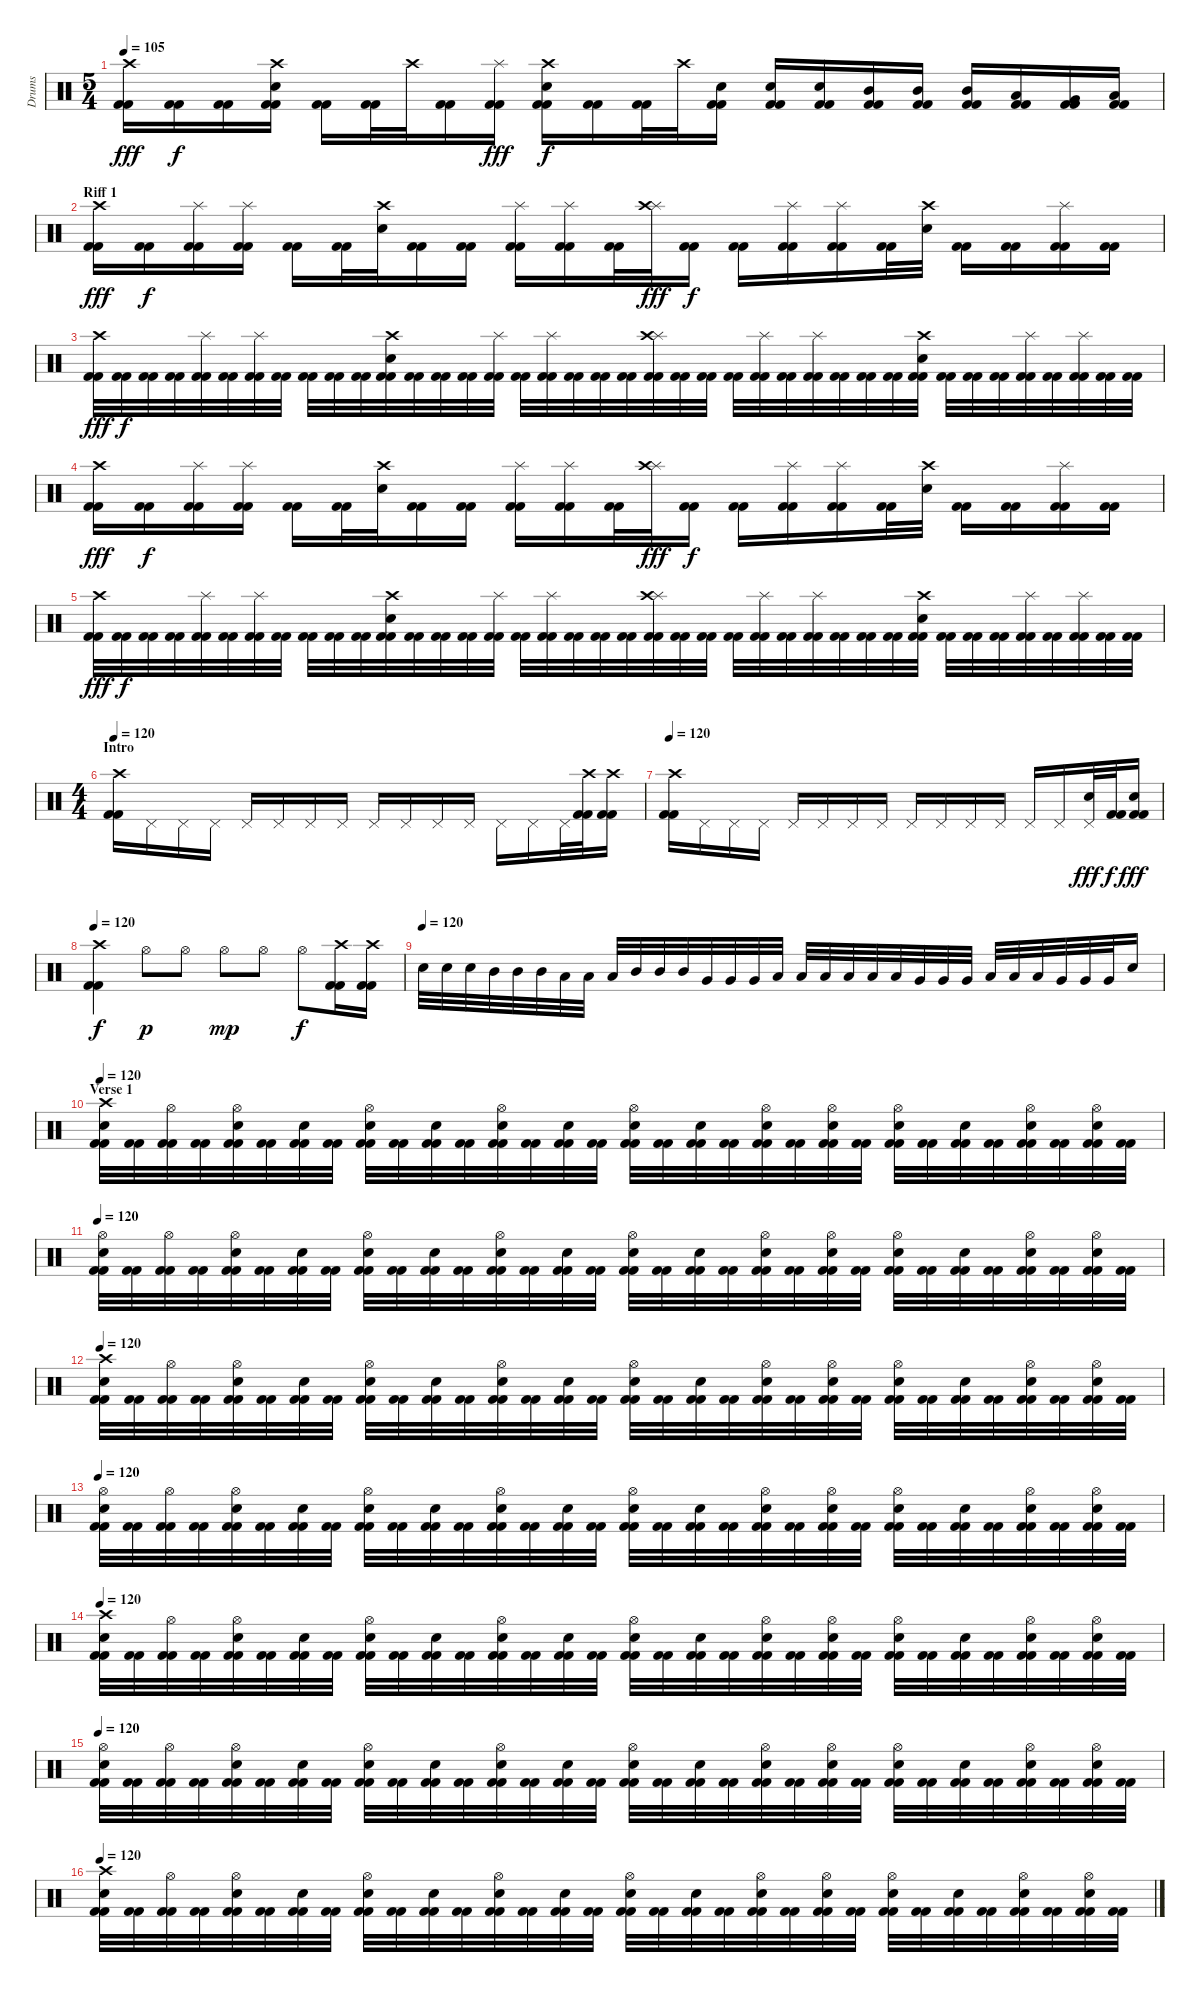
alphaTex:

\track ("Drums" "Drums") {instrument percussion}
\staff {score}
\articulation defaults
\ts (5 4)
\tempo 105
\clef neutral
\ks c
("Crash high (hit)" "Kick (hit) 2" "Kick (hit) 2").16{dy fff} ("Kick (hit) 2" "Kick (hit) 2").16{dy f} ("Kick (hit) 2" "Kick (hit) 2").16 ("Crash high (hit)" "Electric Snare (hit)" "Kick (hit) 2" "Kick (hit) 2").16 ("Kick (hit) 2" "Kick (hit) 2").16 ("Kick (hit) 2" "Kick (hit) 2").32 "Crash high (hit)".32 ("Kick (hit) 2" "Kick (hit) 2").16 ("Splash (hit)" "Kick (hit) 2" "Kick (hit) 2").16{dy fff} ("Crash high (hit)" "Electric Snare (hit)" "Kick (hit) 2" "Kick (hit) 2").16{dy f} ("Kick (hit) 2" "Kick (hit) 2").16 ("Kick (hit) 2" "Kick (hit) 2").32 "Crash high (hit)".32 ("Electric Snare (hit)" "Kick (hit) 2" "Kick (hit) 2").16 ("Electric Snare (hit)" "Kick (hit) 2" "Kick (hit) 2").16 ("Electric Snare (hit)" "Kick (hit) 2" "Kick (hit) 2").16 ("Mid Tom (hit)" "Kick (hit) 2" "Kick (hit) 2").16 ("Mid Tom (hit)" "Kick (hit) 2" "Kick (hit) 2").16 ("Mid Tom (hit)" "Kick (hit) 2" "Kick (hit) 2").16 ("Low Tom (hit)" "Kick (hit) 2" "Kick (hit) 2").16 ("Very Low Tom (hit)" "Kick (hit) 2" "Kick (hit) 2").16 ("Low Floor Tom (hit)" "Kick (hit) 2" "Kick (hit) 2").16 |
\section ("" "Riff 1")
("Crash high (hit)" "Kick (hit) 2" "Kick (hit) 2").16{dy fff} ("Kick (hit) 2" "Kick (hit) 2").16{dy f} ("Splash (hit)" "Kick (hit) 2" "Kick (hit) 2").16 ("Splash (hit)" "Kick (hit) 2" "Kick (hit) 2").16 ("Kick (hit) 2" "Kick (hit) 2").16 ("Kick (hit) 2" "Kick (hit) 2").32 ("Crash high (hit)" "Electric Snare (hit)").32 ("Kick (hit) 2" "Kick (hit) 2").16 ("Kick (hit) 2" "Kick (hit) 2").16 ("Splash (hit)" "Kick (hit) 2" "Kick (hit) 2").16 ("Splash (hit)" "Kick (hit) 2" "Kick (hit) 2").16 ("Kick (hit) 2" "Kick (hit) 2").32 ("Splash (hit)" "Crash high (hit)").32{dy fff} ("Kick (hit) 2" "Kick (hit) 2").16{dy f} ("Kick (hit) 2" "Kick (hit) 2").16 ("Splash (hit)" "Kick (hit) 2" "Kick (hit) 2").16 ("Splash (hit)" "Kick (hit) 2" "Kick (hit) 2").16 ("Kick (hit) 2" "Kick (hit) 2").32 ("Crash high (hit)" "Electric Snare (hit)").32 ("Kick (hit) 2" "Kick (hit) 2").16 ("Kick (hit) 2" "Kick (hit) 2").16 ("Splash (hit)" "Kick (hit) 2" "Kick (hit) 2").16 ("Kick (hit) 2" "Kick (hit) 2").16 |
("Crash high (hit)" "Kick (hit) 2" "Kick (hit) 2").32{dy fff} ("Kick (hit) 2" "Kick (hit) 2").32{dy f} ("Kick (hit) 2" "Kick (hit) 2").32 ("Kick (hit) 2" "Kick (hit) 2").32 ("Splash (hit)" "Kick (hit) 2" "Kick (hit) 2").32 ("Kick (hit) 2" "Kick (hit) 2").32 ("Splash (hit)" "Kick (hit) 2" "Kick (hit) 2").32 ("Kick (hit) 2" "Kick (hit) 2").32 ("Kick (hit) 2" "Kick (hit) 2").32 ("Kick (hit) 2" "Kick (hit) 2").32 ("Kick (hit) 2" "Kick (hit) 2").32 ("Crash high (hit)" "Electric Snare (hit)" "Kick (hit) 2" "Kick (hit) 2").32 ("Kick (hit) 2" "Kick (hit) 2").32 ("Kick (hit) 2" "Kick (hit) 2").32 ("Kick (hit) 2" "Kick (hit) 2").32 ("Splash (hit)" "Kick (hit) 2" "Kick (hit) 2").32 ("Kick (hit) 2" "Kick (hit) 2").32 ("Splash (hit)" "Kick (hit) 2" "Kick (hit) 2").32 ("Kick (hit) 2" "Kick (hit) 2").32 ("Kick (hit) 2" "Kick (hit) 2").32 ("Kick (hit) 2" "Kick (hit) 2").32 ("Splash (hit)" "Crash high (hit)" "Kick (hit) 2" "Kick (hit) 2").32 ("Kick (hit) 2" "Kick (hit) 2").32 ("Kick (hit) 2" "Kick (hit) 2").32 ("Kick (hit) 2" "Kick (hit) 2").32 ("Splash (hit)" "Kick (hit) 2" "Kick (hit) 2").32 ("Kick (hit) 2" "Kick (hit) 2").32 ("Splash (hit)" "Kick (hit) 2" "Kick (hit) 2").32 ("Kick (hit) 2" "Kick (hit) 2").32 ("Kick (hit) 2" "Kick (hit) 2").32 ("Kick (hit) 2" "Kick (hit) 2").32 ("Crash high (hit)" "Electric Snare (hit)" "Kick (hit) 2" "Kick (hit) 2").32 ("Kick (hit) 2" "Kick (hit) 2").32 ("Kick (hit) 2" "Kick (hit) 2").32 ("Kick (hit) 2" "Kick (hit) 2").32 ("Splash (hit)" "Kick (hit) 2" "Kick (hit) 2").32 ("Kick (hit) 2" "Kick (hit) 2").32 ("Splash (hit)" "Kick (hit) 2" "Kick (hit) 2").32 ("Kick (hit) 2" "Kick (hit) 2").32 ("Kick (hit) 2" "Kick (hit) 2").32 |
("Crash high (hit)" "Kick (hit) 2" "Kick (hit) 2").16{dy fff} ("Kick (hit) 2" "Kick (hit) 2").16{dy f} ("Splash (hit)" "Kick (hit) 2" "Kick (hit) 2").16 ("Splash (hit)" "Kick (hit) 2" "Kick (hit) 2").16 ("Kick (hit) 2" "Kick (hit) 2").16 ("Kick (hit) 2" "Kick (hit) 2").32 ("Crash high (hit)" "Electric Snare (hit)").32 ("Kick (hit) 2" "Kick (hit) 2").16 ("Kick (hit) 2" "Kick (hit) 2").16 ("Splash (hit)" "Kick (hit) 2" "Kick (hit) 2").16 ("Splash (hit)" "Kick (hit) 2" "Kick (hit) 2").16 ("Kick (hit) 2" "Kick (hit) 2").32 ("Splash (hit)" "Crash high (hit)").32{dy fff} ("Kick (hit) 2" "Kick (hit) 2").16{dy f} ("Kick (hit) 2" "Kick (hit) 2").16 ("Splash (hit)" "Kick (hit) 2" "Kick (hit) 2").16 ("Splash (hit)" "Kick (hit) 2" "Kick (hit) 2").16 ("Kick (hit) 2" "Kick (hit) 2").32 ("Crash high (hit)" "Electric Snare (hit)").32 ("Kick (hit) 2" "Kick (hit) 2").16 ("Kick (hit) 2" "Kick (hit) 2").16 ("Splash (hit)" "Kick (hit) 2" "Kick (hit) 2").16 ("Kick (hit) 2" "Kick (hit) 2").16 |
("Crash high (hit)" "Kick (hit) 2" "Kick (hit) 2").32{dy fff} ("Kick (hit) 2" "Kick (hit) 2").32{dy f} ("Kick (hit) 2" "Kick (hit) 2").32 ("Kick (hit) 2" "Kick (hit) 2").32 ("Splash (hit)" "Kick (hit) 2" "Kick (hit) 2").32 ("Kick (hit) 2" "Kick (hit) 2").32 ("Splash (hit)" "Kick (hit) 2" "Kick (hit) 2").32 ("Kick (hit) 2" "Kick (hit) 2").32 ("Kick (hit) 2" "Kick (hit) 2").32 ("Kick (hit) 2" "Kick (hit) 2").32 ("Kick (hit) 2" "Kick (hit) 2").32 ("Crash high (hit)" "Electric Snare (hit)" "Kick (hit) 2" "Kick (hit) 2").32 ("Kick (hit) 2" "Kick (hit) 2").32 ("Kick (hit) 2" "Kick (hit) 2").32 ("Kick (hit) 2" "Kick (hit) 2").32 ("Splash (hit)" "Kick (hit) 2" "Kick (hit) 2").32 ("Kick (hit) 2" "Kick (hit) 2").32 ("Splash (hit)" "Kick (hit) 2" "Kick (hit) 2").32 ("Kick (hit) 2" "Kick (hit) 2").32 ("Kick (hit) 2" "Kick (hit) 2").32 ("Kick (hit) 2" "Kick (hit) 2").32 ("Splash (hit)" "Crash high (hit)" "Kick (hit) 2" "Kick (hit) 2").32 ("Kick (hit) 2" "Kick (hit) 2").32 ("Kick (hit) 2" "Kick (hit) 2").32 ("Kick (hit) 2" "Kick (hit) 2").32 ("Splash (hit)" "Kick (hit) 2" "Kick (hit) 2").32 ("Kick (hit) 2" "Kick (hit) 2").32 ("Splash (hit)" "Kick (hit) 2" "Kick (hit) 2").32 ("Kick (hit) 2" "Kick (hit) 2").32 ("Kick (hit) 2" "Kick (hit) 2").32 ("Kick (hit) 2" "Kick (hit) 2").32 ("Crash high (hit)" "Electric Snare (hit)" "Kick (hit) 2" "Kick (hit) 2").32 ("Kick (hit) 2" "Kick (hit) 2").32 ("Kick (hit) 2" "Kick (hit) 2").32 ("Kick (hit) 2" "Kick (hit) 2").32 ("Splash (hit)" "Kick (hit) 2" "Kick (hit) 2").32 ("Kick (hit) 2" "Kick (hit) 2").32 ("Splash (hit)" "Kick (hit) 2" "Kick (hit) 2").32 ("Kick (hit) 2" "Kick (hit) 2").32 ("Kick (hit) 2" "Kick (hit) 2").32 |
\ts (4 4)
\section ("" "Intro")
\tempo 120
("Crash high (hit)" "Kick (hit) 2" "Kick (hit) 2").16 "Pedal Hi-Hat (hit)".16 "Pedal Hi-Hat (hit)".16 "Pedal Hi-Hat (hit)".16 "Pedal Hi-Hat (hit)".16 "Pedal Hi-Hat (hit)".16 "Pedal Hi-Hat (hit)".16 "Pedal Hi-Hat (hit)".16 "Pedal Hi-Hat (hit)".16 "Pedal Hi-Hat (hit)".16 "Pedal Hi-Hat (hit)".16 "Pedal Hi-Hat (hit)".16 "Pedal Hi-Hat (hit)".16 "Pedal Hi-Hat (hit)".16 "Pedal Hi-Hat (hit)".32 ("Crash high (hit)" "Kick (hit) 2" "Kick (hit) 2").32 ("Crash high (hit)" "Kick (hit) 2" "Kick (hit) 2").16 |
\tempo 120
("Crash high (hit)" "Kick (hit) 2" "Kick (hit) 2").16 "Pedal Hi-Hat (hit)".16 "Pedal Hi-Hat (hit)".16 "Pedal Hi-Hat (hit)".16 "Pedal Hi-Hat (hit)".16 "Pedal Hi-Hat (hit)".16 "Pedal Hi-Hat (hit)".16 "Pedal Hi-Hat (hit)".16 "Pedal Hi-Hat (hit)".16 "Pedal Hi-Hat (hit)".16 "Pedal Hi-Hat (hit)".16 "Pedal Hi-Hat (hit)".16 "Pedal Hi-Hat (hit)".16 "Pedal Hi-Hat (hit)".16 ("Pedal Hi-Hat (hit)" "Electric Snare (hit)").32{dy fff} ("Kick (hit) 2" "Kick (hit) 2").32{dy f} ("Electric Snare (hit)" "Kick (hit) 2" "Kick (hit) 2").16{dy fff} |
\tempo 120
("Crash high (hit)" "Kick (hit) 2" "Kick (hit) 2").4{dy f} "Hi-Hat (open)".8{dy p} "Hi-Hat (open)".8 "Hi-Hat (open)".8{dy mp} "Hi-Hat (open)".8 "Hi-Hat (open)".8{dy f} ("Crash high (hit)" "Kick (hit) 2" "Kick (hit) 2").16 ("Crash high (hit)" "Kick (hit) 2" "Kick (hit) 2").16 |
\tempo (120)
"Electric Snare (hit)".32 "Electric Snare (hit)".32 "Electric Snare (hit)".32 "Mid Tom (hit)".32 "Mid Tom (hit)".32 "Mid Tom (hit)".32 "Low Tom (hit)".32 "Low Tom (hit)".32 "Low Tom (hit)".32 "Mid Tom (hit)".32 "Mid Tom (hit)".32 "Mid Tom (hit)".32 "Very Low Tom (hit)".32 "Very Low Tom (hit)".32 "Very Low Tom (hit)".32 "Low Tom (hit)".32 "Low Tom (hit)".32 "Low Tom (hit)".32 "Low Floor Tom (hit)".32 "Low Floor Tom (hit)".32 "Low Floor Tom (hit)".32 "Very Low Tom (hit)".32 "Very Low Tom (hit)".32 "Very Low Tom (hit)".32 "Low Floor Tom (hit)".32 "Low Floor Tom (hit)".32 "Low Floor Tom (hit)".32 "Very Low Tom (hit)".32 "Very Low Tom (hit)".32 "Very Low Tom (hit)".32 "Electric Snare (hit)".16 |
\section ("" "Verse 1")
\tempo 120
("Crash high (hit)" "Electric Snare (hit)" "Kick (hit) 2" "Kick (hit) 2").32 ("Kick (hit) 2" "Kick (hit) 2").32 ("Hi-Hat (open)" "Kick (hit) 2" "Kick (hit) 2").32 ("Kick (hit) 2" "Kick (hit) 2").32 ("Hi-Hat (open)" "Electric Snare (hit)" "Kick (hit) 2" "Kick (hit) 2").32 ("Kick (hit) 2" "Kick (hit) 2").32 ("Electric Snare (hit)" "Kick (hit) 2" "Kick (hit) 2").32 ("Kick (hit) 2" "Kick (hit) 2").32 ("Hi-Hat (open)" "Electric Snare (hit)" "Kick (hit) 2" "Kick (hit) 2").32 ("Kick (hit) 2" "Kick (hit) 2").32 ("Electric Snare (hit)" "Kick (hit) 2" "Kick (hit) 2").32 ("Kick (hit) 2" "Kick (hit) 2").32 ("Hi-Hat (open)" "Electric Snare (hit)" "Kick (hit) 2" "Kick (hit) 2").32 ("Kick (hit) 2" "Kick (hit) 2").32 ("Electric Snare (hit)" "Kick (hit) 2" "Kick (hit) 2").32 ("Kick (hit) 2" "Kick (hit) 2").32 ("Hi-Hat (open)" "Electric Snare (hit)" "Kick (hit) 2" "Kick (hit) 2").32 ("Kick (hit) 2" "Kick (hit) 2").32 ("Electric Snare (hit)" "Kick (hit) 2" "Kick (hit) 2").32 ("Kick (hit) 2" "Kick (hit) 2").32 ("Hi-Hat (open)" "Electric Snare (hit)" "Kick (hit) 2" "Kick (hit) 2").32 ("Kick (hit) 2" "Kick (hit) 2").32 ("Hi-Hat (open)" "Electric Snare (hit)" "Kick (hit) 2" "Kick (hit) 2").32 ("Kick (hit) 2" "Kick (hit) 2").32 ("Hi-Hat (open)" "Electric Snare (hit)" "Kick (hit) 2" "Kick (hit) 2").32 ("Kick (hit) 2" "Kick (hit) 2").32 ("Electric Snare (hit)" "Kick (hit) 2" "Kick (hit) 2").32 ("Kick (hit) 2" "Kick (hit) 2").32 ("Hi-Hat (open)" "Electric Snare (hit)" "Kick (hit) 2" "Kick (hit) 2").32 ("Kick (hit) 2" "Kick (hit) 2").32 ("Hi-Hat (open)" "Electric Snare (hit)" "Kick (hit) 2" "Kick (hit) 2").32 ("Kick (hit) 2" "Kick (hit) 2").32 |
\tempo 120
("Hi-Hat (open)" "Electric Snare (hit)" "Kick (hit) 2" "Kick (hit) 2").32 ("Kick (hit) 2" "Kick (hit) 2").32 ("Hi-Hat (open)" "Kick (hit) 2" "Kick (hit) 2").32 ("Kick (hit) 2" "Kick (hit) 2").32 ("Hi-Hat (open)" "Electric Snare (hit)" "Kick (hit) 2" "Kick (hit) 2").32 ("Kick (hit) 2" "Kick (hit) 2").32 ("Electric Snare (hit)" "Kick (hit) 2" "Kick (hit) 2").32 ("Kick (hit) 2" "Kick (hit) 2").32 ("Hi-Hat (open)" "Electric Snare (hit)" "Kick (hit) 2" "Kick (hit) 2").32 ("Kick (hit) 2" "Kick (hit) 2").32 ("Electric Snare (hit)" "Kick (hit) 2" "Kick (hit) 2").32 ("Kick (hit) 2" "Kick (hit) 2").32 ("Hi-Hat (open)" "Electric Snare (hit)" "Kick (hit) 2" "Kick (hit) 2").32 ("Kick (hit) 2" "Kick (hit) 2").32 ("Electric Snare (hit)" "Kick (hit) 2" "Kick (hit) 2").32 ("Kick (hit) 2" "Kick (hit) 2").32 ("Hi-Hat (open)" "Electric Snare (hit)" "Kick (hit) 2" "Kick (hit) 2").32 ("Kick (hit) 2" "Kick (hit) 2").32 ("Electric Snare (hit)" "Kick (hit) 2" "Kick (hit) 2").32 ("Kick (hit) 2" "Kick (hit) 2").32 ("Hi-Hat (open)" "Electric Snare (hit)" "Kick (hit) 2" "Kick (hit) 2").32 ("Kick (hit) 2" "Kick (hit) 2").32 ("Hi-Hat (open)" "Electric Snare (hit)" "Kick (hit) 2" "Kick (hit) 2").32 ("Kick (hit) 2" "Kick (hit) 2").32 ("Hi-Hat (open)" "Electric Snare (hit)" "Kick (hit) 2" "Kick (hit) 2").32 ("Kick (hit) 2" "Kick (hit) 2").32 ("Electric Snare (hit)" "Kick (hit) 2" "Kick (hit) 2").32 ("Kick (hit) 2" "Kick (hit) 2").32 ("Hi-Hat (open)" "Electric Snare (hit)" "Kick (hit) 2" "Kick (hit) 2").32 ("Kick (hit) 2" "Kick (hit) 2").32 ("Hi-Hat (open)" "Electric Snare (hit)" "Kick (hit) 2" "Kick (hit) 2").32 ("Kick (hit) 2" "Kick (hit) 2").32 |
\tempo 120
("Crash high (hit)" "Electric Snare (hit)" "Kick (hit) 2" "Kick (hit) 2").32 ("Kick (hit) 2" "Kick (hit) 2").32 ("Hi-Hat (open)" "Kick (hit) 2" "Kick (hit) 2").32 ("Kick (hit) 2" "Kick (hit) 2").32 ("Hi-Hat (open)" "Electric Snare (hit)" "Kick (hit) 2" "Kick (hit) 2").32 ("Kick (hit) 2" "Kick (hit) 2").32 ("Electric Snare (hit)" "Kick (hit) 2" "Kick (hit) 2").32 ("Kick (hit) 2" "Kick (hit) 2").32 ("Hi-Hat (open)" "Electric Snare (hit)" "Kick (hit) 2" "Kick (hit) 2").32 ("Kick (hit) 2" "Kick (hit) 2").32 ("Electric Snare (hit)" "Kick (hit) 2" "Kick (hit) 2").32 ("Kick (hit) 2" "Kick (hit) 2").32 ("Hi-Hat (open)" "Electric Snare (hit)" "Kick (hit) 2" "Kick (hit) 2").32 ("Kick (hit) 2" "Kick (hit) 2").32 ("Electric Snare (hit)" "Kick (hit) 2" "Kick (hit) 2").32 ("Kick (hit) 2" "Kick (hit) 2").32 ("Hi-Hat (open)" "Electric Snare (hit)" "Kick (hit) 2" "Kick (hit) 2").32 ("Kick (hit) 2" "Kick (hit) 2").32 ("Electric Snare (hit)" "Kick (hit) 2" "Kick (hit) 2").32 ("Kick (hit) 2" "Kick (hit) 2").32 ("Hi-Hat (open)" "Electric Snare (hit)" "Kick (hit) 2" "Kick (hit) 2").32 ("Kick (hit) 2" "Kick (hit) 2").32 ("Hi-Hat (open)" "Electric Snare (hit)" "Kick (hit) 2" "Kick (hit) 2").32 ("Kick (hit) 2" "Kick (hit) 2").32 ("Hi-Hat (open)" "Electric Snare (hit)" "Kick (hit) 2" "Kick (hit) 2").32 ("Kick (hit) 2" "Kick (hit) 2").32 ("Electric Snare (hit)" "Kick (hit) 2" "Kick (hit) 2").32 ("Kick (hit) 2" "Kick (hit) 2").32 ("Hi-Hat (open)" "Electric Snare (hit)" "Kick (hit) 2" "Kick (hit) 2").32 ("Kick (hit) 2" "Kick (hit) 2").32 ("Hi-Hat (open)" "Electric Snare (hit)" "Kick (hit) 2" "Kick (hit) 2").32 ("Kick (hit) 2" "Kick (hit) 2").32 |
\tempo 120
("Hi-Hat (open)" "Electric Snare (hit)" "Kick (hit) 2" "Kick (hit) 2").32 ("Kick (hit) 2" "Kick (hit) 2").32 ("Hi-Hat (open)" "Kick (hit) 2" "Kick (hit) 2").32 ("Kick (hit) 2" "Kick (hit) 2").32 ("Hi-Hat (open)" "Electric Snare (hit)" "Kick (hit) 2" "Kick (hit) 2").32 ("Kick (hit) 2" "Kick (hit) 2").32 ("Electric Snare (hit)" "Kick (hit) 2" "Kick (hit) 2").32 ("Kick (hit) 2" "Kick (hit) 2").32 ("Hi-Hat (open)" "Electric Snare (hit)" "Kick (hit) 2" "Kick (hit) 2").32 ("Kick (hit) 2" "Kick (hit) 2").32 ("Electric Snare (hit)" "Kick (hit) 2" "Kick (hit) 2").32 ("Kick (hit) 2" "Kick (hit) 2").32 ("Hi-Hat (open)" "Electric Snare (hit)" "Kick (hit) 2" "Kick (hit) 2").32 ("Kick (hit) 2" "Kick (hit) 2").32 ("Electric Snare (hit)" "Kick (hit) 2" "Kick (hit) 2").32 ("Kick (hit) 2" "Kick (hit) 2").32 ("Hi-Hat (open)" "Electric Snare (hit)" "Kick (hit) 2" "Kick (hit) 2").32 ("Kick (hit) 2" "Kick (hit) 2").32 ("Electric Snare (hit)" "Kick (hit) 2" "Kick (hit) 2").32 ("Kick (hit) 2" "Kick (hit) 2").32 ("Hi-Hat (open)" "Electric Snare (hit)" "Kick (hit) 2" "Kick (hit) 2").32 ("Kick (hit) 2" "Kick (hit) 2").32 ("Hi-Hat (open)" "Electric Snare (hit)" "Kick (hit) 2" "Kick (hit) 2").32 ("Kick (hit) 2" "Kick (hit) 2").32 ("Hi-Hat (open)" "Electric Snare (hit)" "Kick (hit) 2" "Kick (hit) 2").32 ("Kick (hit) 2" "Kick (hit) 2").32 ("Electric Snare (hit)" "Kick (hit) 2" "Kick (hit) 2").32 ("Kick (hit) 2" "Kick (hit) 2").32 ("Hi-Hat (open)" "Electric Snare (hit)" "Kick (hit) 2" "Kick (hit) 2").32 ("Kick (hit) 2" "Kick (hit) 2").32 ("Hi-Hat (open)" "Electric Snare (hit)" "Kick (hit) 2" "Kick (hit) 2").32 ("Kick (hit) 2" "Kick (hit) 2").32 |
\tempo 120
("Crash high (hit)" "Electric Snare (hit)" "Kick (hit) 2" "Kick (hit) 2").32 ("Kick (hit) 2" "Kick (hit) 2").32 ("Hi-Hat (open)" "Kick (hit) 2" "Kick (hit) 2").32 ("Kick (hit) 2" "Kick (hit) 2").32 ("Hi-Hat (open)" "Electric Snare (hit)" "Kick (hit) 2" "Kick (hit) 2").32 ("Kick (hit) 2" "Kick (hit) 2").32 ("Electric Snare (hit)" "Kick (hit) 2" "Kick (hit) 2").32 ("Kick (hit) 2" "Kick (hit) 2").32 ("Hi-Hat (open)" "Electric Snare (hit)" "Kick (hit) 2" "Kick (hit) 2").32 ("Kick (hit) 2" "Kick (hit) 2").32 ("Electric Snare (hit)" "Kick (hit) 2" "Kick (hit) 2").32 ("Kick (hit) 2" "Kick (hit) 2").32 ("Hi-Hat (open)" "Electric Snare (hit)" "Kick (hit) 2" "Kick (hit) 2").32 ("Kick (hit) 2" "Kick (hit) 2").32 ("Electric Snare (hit)" "Kick (hit) 2" "Kick (hit) 2").32 ("Kick (hit) 2" "Kick (hit) 2").32 ("Hi-Hat (open)" "Electric Snare (hit)" "Kick (hit) 2" "Kick (hit) 2").32 ("Kick (hit) 2" "Kick (hit) 2").32 ("Electric Snare (hit)" "Kick (hit) 2" "Kick (hit) 2").32 ("Kick (hit) 2" "Kick (hit) 2").32 ("Hi-Hat (open)" "Electric Snare (hit)" "Kick (hit) 2" "Kick (hit) 2").32 ("Kick (hit) 2" "Kick (hit) 2").32 ("Hi-Hat (open)" "Electric Snare (hit)" "Kick (hit) 2" "Kick (hit) 2").32 ("Kick (hit) 2" "Kick (hit) 2").32 ("Hi-Hat (open)" "Electric Snare (hit)" "Kick (hit) 2" "Kick (hit) 2").32 ("Kick (hit) 2" "Kick (hit) 2").32 ("Electric Snare (hit)" "Kick (hit) 2" "Kick (hit) 2").32 ("Kick (hit) 2" "Kick (hit) 2").32 ("Hi-Hat (open)" "Electric Snare (hit)" "Kick (hit) 2" "Kick (hit) 2").32 ("Kick (hit) 2" "Kick (hit) 2").32 ("Hi-Hat (open)" "Electric Snare (hit)" "Kick (hit) 2" "Kick (hit) 2").32 ("Kick (hit) 2" "Kick (hit) 2").32 |
\tempo 120
("Hi-Hat (open)" "Electric Snare (hit)" "Kick (hit) 2" "Kick (hit) 2").32 ("Kick (hit) 2" "Kick (hit) 2").32 ("Hi-Hat (open)" "Kick (hit) 2" "Kick (hit) 2").32 ("Kick (hit) 2" "Kick (hit) 2").32 ("Hi-Hat (open)" "Electric Snare (hit)" "Kick (hit) 2" "Kick (hit) 2").32 ("Kick (hit) 2" "Kick (hit) 2").32 ("Electric Snare (hit)" "Kick (hit) 2" "Kick (hit) 2").32 ("Kick (hit) 2" "Kick (hit) 2").32 ("Hi-Hat (open)" "Electric Snare (hit)" "Kick (hit) 2" "Kick (hit) 2").32 ("Kick (hit) 2" "Kick (hit) 2").32 ("Electric Snare (hit)" "Kick (hit) 2" "Kick (hit) 2").32 ("Kick (hit) 2" "Kick (hit) 2").32 ("Hi-Hat (open)" "Electric Snare (hit)" "Kick (hit) 2" "Kick (hit) 2").32 ("Kick (hit) 2" "Kick (hit) 2").32 ("Electric Snare (hit)" "Kick (hit) 2" "Kick (hit) 2").32 ("Kick (hit) 2" "Kick (hit) 2").32 ("Hi-Hat (open)" "Electric Snare (hit)" "Kick (hit) 2" "Kick (hit) 2").32 ("Kick (hit) 2" "Kick (hit) 2").32 ("Electric Snare (hit)" "Kick (hit) 2" "Kick (hit) 2").32 ("Kick (hit) 2" "Kick (hit) 2").32 ("Hi-Hat (open)" "Electric Snare (hit)" "Kick (hit) 2" "Kick (hit) 2").32 ("Kick (hit) 2" "Kick (hit) 2").32 ("Hi-Hat (open)" "Electric Snare (hit)" "Kick (hit) 2" "Kick (hit) 2").32 ("Kick (hit) 2" "Kick (hit) 2").32 ("Hi-Hat (open)" "Electric Snare (hit)" "Kick (hit) 2" "Kick (hit) 2").32 ("Kick (hit) 2" "Kick (hit) 2").32 ("Electric Snare (hit)" "Kick (hit) 2" "Kick (hit) 2").32 ("Kick (hit) 2" "Kick (hit) 2").32 ("Hi-Hat (open)" "Electric Snare (hit)" "Kick (hit) 2" "Kick (hit) 2").32 ("Kick (hit) 2" "Kick (hit) 2").32 ("Hi-Hat (open)" "Electric Snare (hit)" "Kick (hit) 2" "Kick (hit) 2").32 ("Kick (hit) 2" "Kick (hit) 2").32 |
\tempo 120
("Crash high (hit)" "Electric Snare (hit)" "Kick (hit) 2" "Kick (hit) 2").32 ("Kick (hit) 2" "Kick (hit) 2").32 ("Hi-Hat (open)" "Kick (hit) 2" "Kick (hit) 2").32 ("Kick (hit) 2" "Kick (hit) 2").32 ("Hi-Hat (open)" "Electric Snare (hit)" "Kick (hit) 2" "Kick (hit) 2").32 ("Kick (hit) 2" "Kick (hit) 2").32 ("Electric Snare (hit)" "Kick (hit) 2" "Kick (hit) 2").32 ("Kick (hit) 2" "Kick (hit) 2").32 ("Hi-Hat (open)" "Electric Snare (hit)" "Kick (hit) 2" "Kick (hit) 2").32 ("Kick (hit) 2" "Kick (hit) 2").32 ("Electric Snare (hit)" "Kick (hit) 2" "Kick (hit) 2").32 ("Kick (hit) 2" "Kick (hit) 2").32 ("Hi-Hat (open)" "Electric Snare (hit)" "Kick (hit) 2" "Kick (hit) 2").32 ("Kick (hit) 2" "Kick (hit) 2").32 ("Electric Snare (hit)" "Kick (hit) 2" "Kick (hit) 2").32 ("Kick (hit) 2" "Kick (hit) 2").32 ("Hi-Hat (open)" "Electric Snare (hit)" "Kick (hit) 2" "Kick (hit) 2").32 ("Kick (hit) 2" "Kick (hit) 2").32 ("Electric Snare (hit)" "Kick (hit) 2" "Kick (hit) 2").32 ("Kick (hit) 2" "Kick (hit) 2").32 ("Hi-Hat (open)" "Electric Snare (hit)" "Kick (hit) 2" "Kick (hit) 2").32 ("Kick (hit) 2" "Kick (hit) 2").32 ("Hi-Hat (open)" "Electric Snare (hit)" "Kick (hit) 2" "Kick (hit) 2").32 ("Kick (hit) 2" "Kick (hit) 2").32 ("Hi-Hat (open)" "Electric Snare (hit)" "Kick (hit) 2" "Kick (hit) 2").32 ("Kick (hit) 2" "Kick (hit) 2").32 ("Electric Snare (hit)" "Kick (hit) 2" "Kick (hit) 2").32 ("Kick (hit) 2" "Kick (hit) 2").32 ("Hi-Hat (open)" "Electric Snare (hit)" "Kick (hit) 2" "Kick (hit) 2").32 ("Kick (hit) 2" "Kick (hit) 2").32 ("Hi-Hat (open)" "Electric Snare (hit)" "Kick (hit) 2" "Kick (hit) 2").32 ("Kick (hit) 2" "Kick (hit) 2").32
